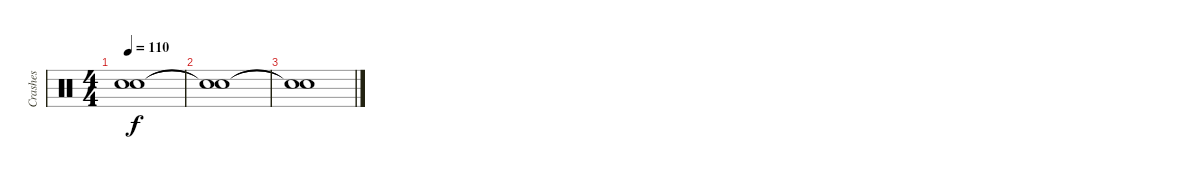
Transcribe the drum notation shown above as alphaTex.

\track ("Crashes" "Crashes") {instrument percussion}
\staff {score}
\articulation defaults
\ts (4 4)
\tempo 110
\clef neutral
\ks c
("Snare (hit)"{t} "Snare (hit)"{t}).1{dy f} |
("Snare (hit)"{t} "Snare (hit)"{t}).1 |
("Snare (hit)"{t} "Snare (hit)"{t}).1
